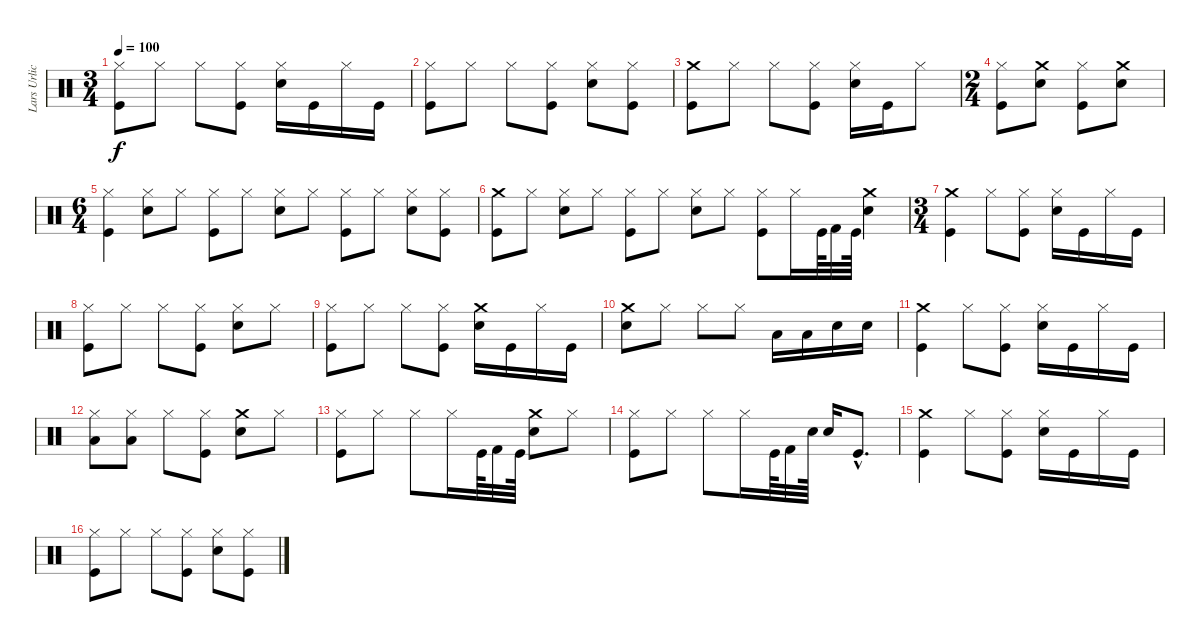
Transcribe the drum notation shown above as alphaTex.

\track ("Lars Urlich" "Lars Urlic") {instrument percussion}
\staff {score}
\articulation defaults
\ts (3 4)
\tempo 100
\clef neutral
\ks c
("Hi-Hat (closed)" "Kick (hit)").8{dy f} "Hi-Hat (closed)".8 "Hi-Hat (closed)".8 ("Kick (hit)" "Hi-Hat (closed)").8 ("Hi-Hat (closed)" "Snare (hit) 2").16 "Kick (hit)".16 "Hi-Hat (closed)".16 "Kick (hit)".16 |
("Hi-Hat (closed)" "Kick (hit)").8 "Hi-Hat (closed)".8 "Hi-Hat (closed)".8 ("Hi-Hat (closed)" "Kick (hit)").8 ("Snare (hit) 2" "Hi-Hat (closed)").8 ("Hi-Hat (closed)" "Kick (hit)").8 |
("Crash medium (hit)" "Kick (hit)").8 "Hi-Hat (closed)".8 "Hi-Hat (closed)".8 ("Kick (hit)" "Hi-Hat (closed)").8 ("Hi-Hat (closed)" "Snare (hit) 2").16 "Kick (hit)".16 "Hi-Hat (closed)".8 |
\ts (2 4)
("Hi-Hat (closed)" "Kick (hit)").8 ("Crash medium (hit)" "Snare (hit) 2").8 ("Hi-Hat (closed)" "Kick (hit)").8 ("Crash medium (hit)" "Snare (hit) 2").8 |
\ts (6 4)
("Hi-Hat (closed)" "Kick (hit)").4 ("Hi-Hat (closed)" "Snare (hit) 2").8 "Hi-Hat (closed)".8 ("Hi-Hat (closed)" "Kick (hit)").8 "Hi-Hat (closed)".8 ("Snare (hit) 2" "Hi-Hat (closed)").8 "Hi-Hat (closed)".8 ("Hi-Hat (closed)" "Kick (hit)").8 "Hi-Hat (closed)".8 ("Snare (hit) 2" "Hi-Hat (closed)").8 ("Hi-Hat (closed)" "Kick (hit)").8 |
("Kick (hit)" "Crash medium (hit)").8 "Hi-Hat (closed)".8 ("Hi-Hat (closed)" "Snare (hit) 2").8 "Hi-Hat (closed)".8 ("Hi-Hat (closed)" "Kick (hit)").8 "Hi-Hat (closed)".8 ("Snare (hit) 2" "Hi-Hat (closed)").8 "Hi-Hat (closed)".8 ("Hi-Hat (closed)" "Kick (hit)").8 "Hi-Hat (closed)".16 "Kick (hit)".64 "Kick (hit) 2".32 "Kick (hit)".64 ("Crash medium (hit)" "Snare (hit) 2").4 |
\ts (3 4)
("Crash medium (hit)" "Kick (hit)").4 "Hi-Hat (closed)".8 ("Kick (hit)" "Hi-Hat (closed)").8 ("Snare (hit) 2" "Hi-Hat (closed)").16 "Kick (hit)".16 "Hi-Hat (closed)".16 "Kick (hit)".16 |
("Hi-Hat (closed)" "Kick (hit)").8 "Hi-Hat (closed)".8 "Hi-Hat (closed)".8 ("Hi-Hat (closed)" "Kick (hit)").8 ("Snare (hit) 2" "Hi-Hat (closed)").8 "Hi-Hat (closed)".8 |
("Hi-Hat (closed)" "Kick (hit)").8 "Hi-Hat (closed)".8 "Hi-Hat (closed)".8 ("Kick (hit)" "Hi-Hat (closed)").8 ("Crash medium (hit)" "Snare (hit) 2").16 "Kick (hit)".16 "Hi-Hat (closed)".16 "Kick (hit)".16 |
("Crash medium (hit)" "Snare (hit) 2").8 "Hi-Hat (closed)".8 "Hi-Hat (closed)".8 "Hi-Hat (closed)".8 "Low Tom (hit)".16 "Low Tom (hit)".16 "Snare (hit) 2".16 "Snare (hit) 2".16 |
("Kick (hit)" "Crash medium (hit)").4 "Hi-Hat (closed)".8 ("Kick (hit)" "Hi-Hat (closed)").8 ("Snare (hit) 2" "Hi-Hat (closed)").16 "Kick (hit)".16 "Hi-Hat (closed)".16 "Kick (hit)".16 |
("Hi-Hat (closed)" "Low Tom (hit)").8 ("Hi-Hat (closed)" "Low Tom (hit)").8 "Hi-Hat (closed)".8 ("Kick (hit)" "Hi-Hat (closed)").8 ("Crash medium (hit)" "Snare (hit) 2").8 "Hi-Hat (closed)".8 |
("Hi-Hat (closed)" "Kick (hit)").8 "Hi-Hat (closed)".8 "Hi-Hat (closed)".8 "Hi-Hat (closed)".16 "Kick (hit)".64 "Kick (hit) 2".32 "Kick (hit)".64 ("Crash medium (hit)" "Snare (hit) 2").8 "Hi-Hat (closed)".8 |
("Hi-Hat (closed)" "Kick (hit)").8 "Hi-Hat (closed)".8 "Hi-Hat (closed)".8 "Hi-Hat (closed)".16 "Kick (hit)".64 "Kick (hit) 2".32 "Snare (hit) 2".64 "Snare (hit) 2".16 "Kick (hit)"{hac}.8{d} |
("Kick (hit)" "Crash medium (hit)").4 "Hi-Hat (closed)".8 ("Kick (hit)" "Hi-Hat (closed)").8 ("Hi-Hat (closed)" "Snare (hit) 2").16 "Kick (hit)".16 "Hi-Hat (closed)".16 "Kick (hit)".16 |
("Kick (hit)" "Hi-Hat (closed)").8 "Hi-Hat (closed)".8 "Hi-Hat (closed)".8 ("Hi-Hat (closed)" "Kick (hit)").8 ("Snare (hit) 2" "Hi-Hat (closed)").8 ("Hi-Hat (closed)" "Kick (hit)").8
